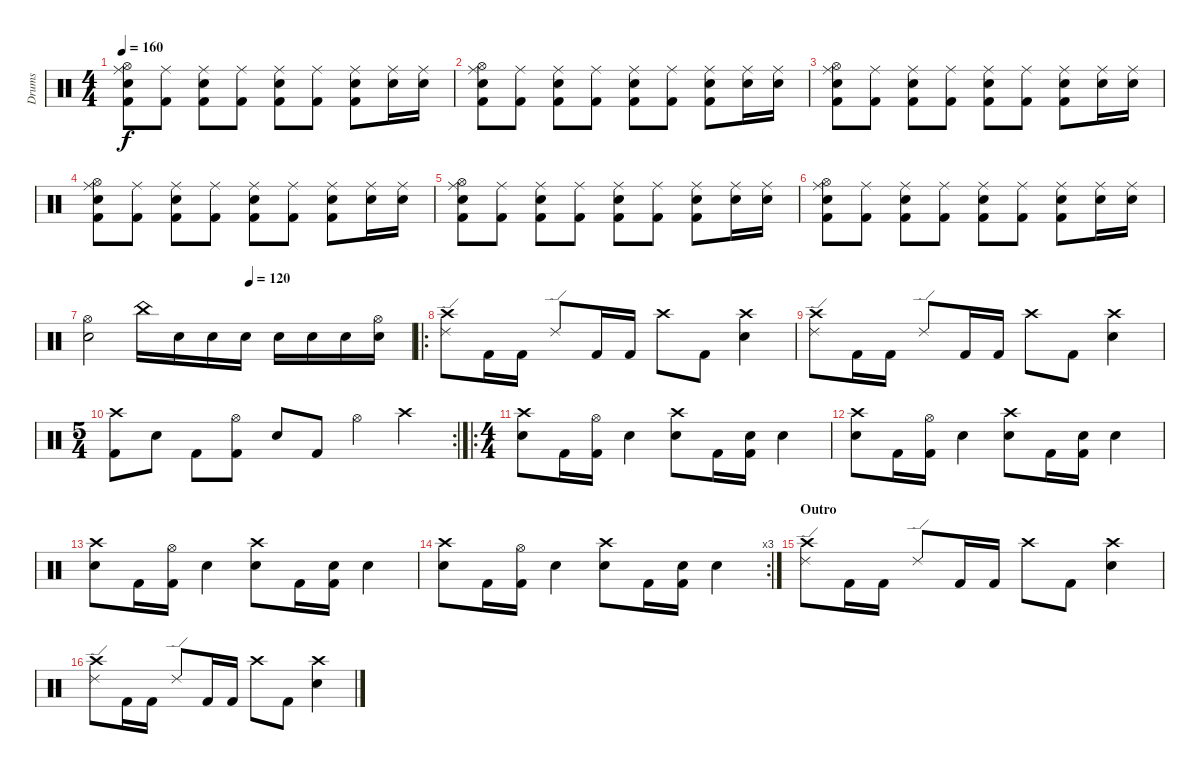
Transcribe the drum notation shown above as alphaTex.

\track ("Drums" "Drums") {instrument percussion}
\staff {score}
\articulation defaults
\ts (4 4)
\tempo 160
\clef neutral
\ks c
("Ride (middle)" "Hi-Hat (open)" "Electric Snare (hit)" "Kick (hit) 2").8{dy f} ("Ride (middle)" "Kick (hit) 2").8 ("Ride (middle)" "Electric Snare (hit)" "Kick (hit) 2").8 ("Ride (middle)" "Kick (hit) 2").8 ("Ride (middle)" "Electric Snare (hit)" "Kick (hit) 2").8 ("Ride (middle)" "Kick (hit) 2").8 ("Ride (middle)" "Electric Snare (hit)" "Kick (hit) 2").8 ("Ride (middle)" "Electric Snare (hit)").16 ("Ride (middle)" "Electric Snare (hit)").16 |
("Ride (middle)" "Hi-Hat (open)" "Electric Snare (hit)" "Kick (hit) 2").8 ("Ride (middle)" "Kick (hit) 2").8 ("Ride (middle)" "Electric Snare (hit)" "Kick (hit) 2").8 ("Ride (middle)" "Kick (hit) 2").8 ("Ride (middle)" "Electric Snare (hit)" "Kick (hit) 2").8 ("Ride (middle)" "Kick (hit) 2").8 ("Ride (middle)" "Electric Snare (hit)" "Kick (hit) 2").8 ("Ride (middle)" "Electric Snare (hit)").16 ("Ride (middle)" "Electric Snare (hit)").16 |
("Ride (middle)" "Hi-Hat (open)" "Electric Snare (hit)" "Kick (hit) 2").8 ("Ride (middle)" "Kick (hit) 2").8 ("Ride (middle)" "Electric Snare (hit)" "Kick (hit) 2").8 ("Ride (middle)" "Kick (hit) 2").8 ("Ride (middle)" "Electric Snare (hit)" "Kick (hit) 2").8 ("Ride (middle)" "Kick (hit) 2").8 ("Ride (middle)" "Electric Snare (hit)" "Kick (hit) 2").8 ("Ride (middle)" "Electric Snare (hit)").16 ("Ride (middle)" "Electric Snare (hit)").16 |
("Ride (middle)" "Hi-Hat (open)" "Electric Snare (hit)" "Kick (hit) 2").8 ("Ride (middle)" "Kick (hit) 2").8 ("Ride (middle)" "Electric Snare (hit)" "Kick (hit) 2").8 ("Ride (middle)" "Kick (hit) 2").8 ("Ride (middle)" "Electric Snare (hit)" "Kick (hit) 2").8 ("Ride (middle)" "Kick (hit) 2").8 ("Ride (middle)" "Electric Snare (hit)" "Kick (hit) 2").8 ("Ride (middle)" "Electric Snare (hit)").16 ("Ride (middle)" "Electric Snare (hit)").16 |
("Ride (middle)" "Hi-Hat (open)" "Electric Snare (hit)" "Kick (hit) 2").8 ("Ride (middle)" "Kick (hit) 2").8 ("Ride (middle)" "Electric Snare (hit)" "Kick (hit) 2").8 ("Ride (middle)" "Kick (hit) 2").8 ("Ride (middle)" "Electric Snare (hit)" "Kick (hit) 2").8 ("Ride (middle)" "Kick (hit) 2").8 ("Ride (middle)" "Electric Snare (hit)" "Kick (hit) 2").8 ("Ride (middle)" "Electric Snare (hit)").16 ("Ride (middle)" "Electric Snare (hit)").16 |
("Ride (middle)" "Hi-Hat (open)" "Electric Snare (hit)" "Kick (hit) 2").8 ("Ride (middle)" "Kick (hit) 2").8 ("Ride (middle)" "Electric Snare (hit)" "Kick (hit) 2").8 ("Ride (middle)" "Kick (hit) 2").8 ("Ride (middle)" "Electric Snare (hit)" "Kick (hit) 2").8 ("Ride (middle)" "Kick (hit) 2").8 ("Ride (middle)" "Electric Snare (hit)" "Kick (hit) 2").8 ("Ride (middle)" "Electric Snare (hit)").16 ("Ride (middle)" "Electric Snare (hit)").16 |
\tempo (120 0.5)
("Electric Snare (hit)" "Hi-Hat (open)").2 "China (hit)".16 "Electric Snare (hit)".16 "Electric Snare (hit)".16 "Electric Snare (hit)".16 "Electric Snare (hit)".16 "Electric Snare (hit)".16 "Electric Snare (hit)".16 ("Electric Snare (hit)" "Hi-Hat (open)").16 |
\ro
("Crash high (hit)" "Ride (edge) 2").8{volume 13} "Kick (hit) 2".16 "Kick (hit) 2".16 "Ride (edge) 2".8 "Kick (hit) 2".16 "Kick (hit) 2".16 "Crash high (hit)".8 "Kick (hit) 2".8 ("Crash high (hit)" "Electric Snare (hit)").4 |
("Crash high (hit)" "Ride (edge) 2").8 "Kick (hit) 2".16 "Kick (hit) 2".16 "Ride (edge) 2".8 "Kick (hit) 2".16 "Kick (hit) 2".16 "Crash high (hit)".8 "Kick (hit) 2".8 ("Crash high (hit)" "Electric Snare (hit)").4 |
\rc 2
\ts (5 4)
("Crash high (hit)" "Kick (hit) 2").8 "Snare (hit) 2".8 "Kick (hit) 2".8 ("Kick (hit) 2" "Hi-Hat (open)").8 "Electric Snare (hit)".8 "Kick (hit) 2".8 "Hi-Hat (open)".4 "Crash high (hit)".4 |
\ro
\ts (4 4)
("Electric Snare (hit)" "Crash high (hit)").8 "Kick (hit) 2".16 ("Hi-Hat (open)" "Kick (hit) 2").16 "Electric Snare (hit)".4 ("Electric Snare (hit)" "Crash high (hit)").8 "Kick (hit) 2".16 ("Electric Snare (hit)" "Kick (hit) 2").16 "Electric Snare (hit)".4 |
("Electric Snare (hit)" "Crash high (hit)").8 "Kick (hit) 2".16 ("Hi-Hat (open)" "Kick (hit) 2").16 "Electric Snare (hit)".4 ("Electric Snare (hit)" "Crash high (hit)").8 "Kick (hit) 2".16 ("Electric Snare (hit)" "Kick (hit) 2").16 "Electric Snare (hit)".4 |
("Electric Snare (hit)" "Crash high (hit)").8 "Kick (hit) 2".16 ("Hi-Hat (open)" "Kick (hit) 2").16 "Electric Snare (hit)".4 ("Electric Snare (hit)" "Crash high (hit)").8 "Kick (hit) 2".16 ("Electric Snare (hit)" "Kick (hit) 2").16 "Electric Snare (hit)".4 |
\rc 3
("Electric Snare (hit)" "Crash high (hit)").8 "Kick (hit) 2".16 ("Hi-Hat (open)" "Kick (hit) 2").16 "Electric Snare (hit)".4 ("Electric Snare (hit)" "Crash high (hit)").8 "Kick (hit) 2".16 ("Electric Snare (hit)" "Kick (hit) 2").16 "Electric Snare (hit)".4 |
\section ("" "Outro")
("Crash high (hit)" "Ride (edge) 2").8 "Kick (hit) 2".16 "Kick (hit) 2".16 "Ride (edge) 2".8 "Kick (hit) 2".16 "Kick (hit) 2".16 "Crash high (hit)".8 "Kick (hit) 2".8 ("Crash high (hit)" "Electric Snare (hit)").4 |
("Crash high (hit)" "Ride (edge) 2").8 "Kick (hit) 2".16 "Kick (hit) 2".16 "Ride (edge) 2".8 "Kick (hit) 2".16 "Kick (hit) 2".16 "Crash high (hit)".8 "Kick (hit) 2".8 ("Crash high (hit)" "Electric Snare (hit)").4
